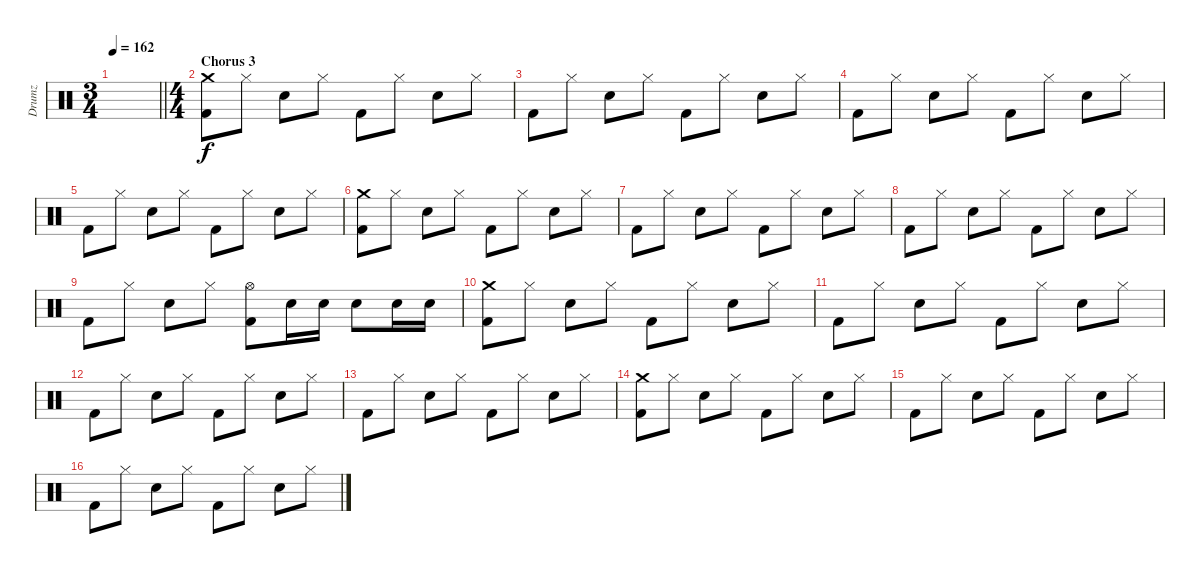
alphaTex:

\track ("Drumz" "Drumz") {instrument percussion}
\staff {score}
\articulation defaults
\ts (3 4)
\tempo 162
\clef neutral
\barLineRight lightlight
\ks c
|
\ts (4 4)
\section ("" "Chorus 3")
("Crash medium (hit)" "Kick (hit) 2").8 "Hi-Hat (closed)".8 "Electric Snare (hit)".8 "Hi-Hat (closed)".8 "Kick (hit) 2".8 "Hi-Hat (closed)".8 "Electric Snare (hit)".8 "Hi-Hat (closed)".8 |
"Kick (hit) 2".8 "Hi-Hat (closed)".8 "Electric Snare (hit)".8 "Hi-Hat (closed)".8 "Kick (hit) 2".8 "Hi-Hat (closed)".8 "Electric Snare (hit)".8 "Hi-Hat (closed)".8 |
"Kick (hit) 2".8 "Hi-Hat (closed)".8 "Electric Snare (hit)".8 "Hi-Hat (closed)".8 "Kick (hit) 2".8 "Hi-Hat (closed)".8 "Electric Snare (hit)".8 "Hi-Hat (closed)".8 |
"Kick (hit) 2".8 "Hi-Hat (closed)".8 "Electric Snare (hit)".8 "Hi-Hat (closed)".8 "Kick (hit) 2".8 "Hi-Hat (closed)".8 "Electric Snare (hit)".8 "Hi-Hat (closed)".8 |
("Crash medium (hit)" "Kick (hit) 2").8 "Hi-Hat (closed)".8 "Electric Snare (hit)".8 "Hi-Hat (closed)".8 "Kick (hit) 2".8 "Hi-Hat (closed)".8 "Electric Snare (hit)".8 "Hi-Hat (closed)".8 |
"Kick (hit) 2".8 "Hi-Hat (closed)".8 "Electric Snare (hit)".8 "Hi-Hat (closed)".8 "Kick (hit) 2".8 "Hi-Hat (closed)".8 "Electric Snare (hit)".8 "Hi-Hat (closed)".8 |
"Kick (hit) 2".8 "Hi-Hat (closed)".8 "Electric Snare (hit)".8 "Hi-Hat (closed)".8 "Kick (hit) 2".8 "Hi-Hat (closed)".8 "Electric Snare (hit)".8 "Hi-Hat (closed)".8 |
"Kick (hit) 2".8 "Hi-Hat (closed)".8 "Electric Snare (hit)".8 "Hi-Hat (closed)".8 ("Hi-Hat (open)" "Kick (hit) 2").8 "Electric Snare (hit)".16 "Electric Snare (hit)".16 "Electric Snare (hit)".8 "Electric Snare (hit)".16 "Electric Snare (hit)".16 |
("Crash medium (hit)" "Kick (hit) 2").8 "Hi-Hat (closed)".8 "Electric Snare (hit)".8 "Hi-Hat (closed)".8 "Kick (hit) 2".8 "Hi-Hat (closed)".8 "Electric Snare (hit)".8 "Hi-Hat (closed)".8 |
"Kick (hit) 2".8 "Hi-Hat (closed)".8 "Electric Snare (hit)".8 "Hi-Hat (closed)".8 "Kick (hit) 2".8 "Hi-Hat (closed)".8 "Electric Snare (hit)".8 "Hi-Hat (closed)".8 |
"Kick (hit) 2".8 "Hi-Hat (closed)".8 "Electric Snare (hit)".8 "Hi-Hat (closed)".8 "Kick (hit) 2".8 "Hi-Hat (closed)".8 "Electric Snare (hit)".8 "Hi-Hat (closed)".8 |
"Kick (hit) 2".8 "Hi-Hat (closed)".8 "Electric Snare (hit)".8 "Hi-Hat (closed)".8 "Kick (hit) 2".8 "Hi-Hat (closed)".8 "Electric Snare (hit)".8 "Hi-Hat (closed)".8 |
("Crash medium (hit)" "Kick (hit) 2").8 "Hi-Hat (closed)".8 "Electric Snare (hit)".8 "Hi-Hat (closed)".8 "Kick (hit) 2".8 "Hi-Hat (closed)".8 "Electric Snare (hit)".8 "Hi-Hat (closed)".8 |
"Kick (hit) 2".8 "Hi-Hat (closed)".8 "Electric Snare (hit)".8 "Hi-Hat (closed)".8 "Kick (hit) 2".8 "Hi-Hat (closed)".8 "Electric Snare (hit)".8 "Hi-Hat (closed)".8 |
"Kick (hit) 2".8 "Hi-Hat (closed)".8 "Electric Snare (hit)".8 "Hi-Hat (closed)".8 "Kick (hit) 2".8 "Hi-Hat (closed)".8 "Electric Snare (hit)".8 "Hi-Hat (closed)".8
